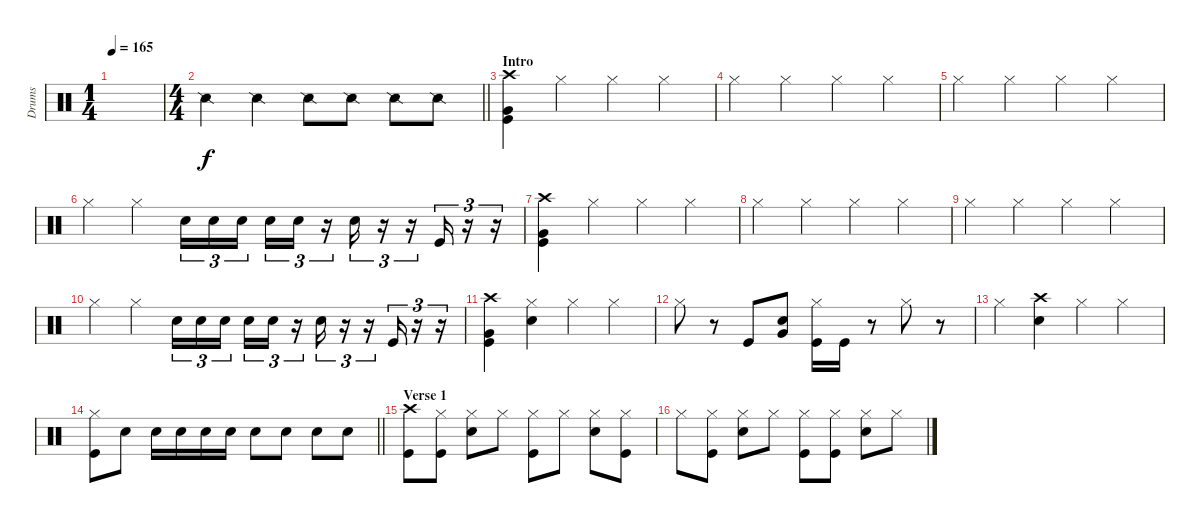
\track ("Drums" "Drums") {instrument percussion}
\staff {score}
\articulation defaults
\ts (1 4)
\tempo 165
\clef neutral
\ks c
|
\ts (4 4)
\barLineRight lightlight "Snare (side stick) 2".4 "Snare (side stick) 2".4 "Snare (side stick) 2".8 "Snare (side stick) 2".8 "Snare (side stick) 2".8 "Snare (side stick) 2".8
|
\section ("" "Intro")
("Crash high (hit)" "Very Low Tom (hit)" "Kick (hit)").4 "Hi-Hat (closed)".4 "Hi-Hat (closed)".4 "Hi-Hat (closed)".4 |
"Hi-Hat (closed)".4 "Hi-Hat (closed)".4 "Hi-Hat (closed)".4 "Hi-Hat (closed)".4 |
"Hi-Hat (closed)".4 "Hi-Hat (closed)".4 "Hi-Hat (closed)".4 "Hi-Hat (closed)".4 |
"Hi-Hat (closed)".4 "Hi-Hat (closed)".4 "Snare (hit) 2".16{tu (3 2)} "Snare (hit) 2".16{tu (3 2)} "Snare (hit) 2".16{tu (3 2) beam splitsecondary} "Snare (hit) 2".16{tu (3 2)} "Snare (hit) 2".16{tu (3 2)} r.16{tu (3 2)} "Snare (hit) 2".16{tu (3 2)} r.16{tu (3 2)} r.16{tu (3 2)} "Kick (hit)".16{tu (3 2)} r.16{tu (3 2)} r.16{tu (3 2)} |
("Crash high (hit)" "Very Low Tom (hit)" "Kick (hit)").4 "Hi-Hat (closed)".4 "Hi-Hat (closed)".4 "Hi-Hat (closed)".4 |
"Hi-Hat (closed)".4 "Hi-Hat (closed)".4 "Hi-Hat (closed)".4 "Hi-Hat (closed)".4 |
"Hi-Hat (closed)".4 "Hi-Hat (closed)".4 "Hi-Hat (closed)".4 "Hi-Hat (closed)".4 |
"Hi-Hat (closed)".4 "Hi-Hat (closed)".4 "Snare (hit) 2".16{tu (3 2)} "Snare (hit) 2".16{tu (3 2)} "Snare (hit) 2".16{tu (3 2) beam splitsecondary} "Snare (hit) 2".16{tu (3 2)} "Snare (hit) 2".16{tu (3 2)} r.16{tu (3 2)} "Snare (hit) 2".16{tu (3 2)} r.16{tu (3 2)} r.16{tu (3 2)} "Kick (hit)".16{tu (3 2)} r.16{tu (3 2)} r.16{tu (3 2)} |
("Crash high (hit)" "Very Low Tom (hit)" "Kick (hit)").4 ("Hi-Hat (closed)" "Snare (hit) 2").4 "Hi-Hat (closed)".4 "Hi-Hat (closed)".4 |
"Hi-Hat (closed)".8 r.8 "Kick (hit)".8 ("Snare (hit) 2" "Very Low Tom (hit)").8 ("Hi-Hat (closed)" "Kick (hit)").16 "Kick (hit)".16 r.8 "Hi-Hat (closed)".8 r.8 |
"Hi-Hat (closed)".4 ("Crash high (hit)" "Snare (hit) 2").4 "Hi-Hat (closed)".4 "Hi-Hat (closed)".4 |
\barLineRight lightlight
("Hi-Hat (closed)" "Kick (hit)").8 "Snare (hit) 2".8 "Snare (hit) 2".16 "Snare (hit) 2".16 "Snare (hit) 2".16 "Snare (hit) 2".16 "Snare (hit) 2".8 "Snare (hit) 2".8 "Snare (hit) 2".8 "Snare (hit) 2".8 |
\section ("" "Verse 1")
("Crash high (hit)" "Kick (hit)").8 ("Hi-Hat (closed)" "Kick (hit)").8 ("Hi-Hat (closed)" "Snare (hit) 2").8 "Hi-Hat (closed)".8 ("Hi-Hat (closed)" "Kick (hit)").8 "Hi-Hat (closed)".8 ("Hi-Hat (closed)" "Snare (hit) 2").8 ("Hi-Hat (closed)" "Kick (hit)").8 |
"Hi-Hat (closed)".8 ("Hi-Hat (closed)" "Kick (hit)").8 ("Hi-Hat (closed)" "Snare (hit) 2").8 "Hi-Hat (closed)".8 ("Hi-Hat (closed)" "Kick (hit)").8 ("Hi-Hat (closed)" "Kick (hit)").8 ("Hi-Hat (closed)" "Snare (hit) 2").8 "Hi-Hat (closed)".8
